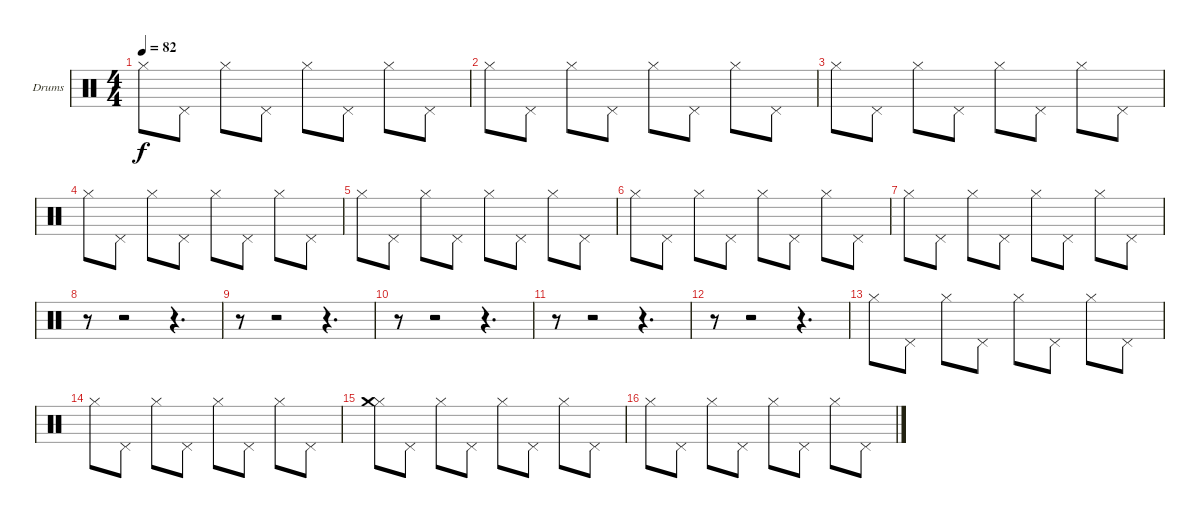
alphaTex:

\bracketExtendMode groupsimilarinstruments
\firstSystemTrackNameOrientation horizontal
\otherSystemsTrackNameOrientation horizontal
\track ("Drumkit" "Drums") {instrument percussion}
\staff {score}
\articulation defaults
\ts (4 4)
\tempo 82
\clef neutral
\ks c "Hi-Hat (closed)".8{dy f} "Pedal Hi-Hat (hit)".8 "Hi-Hat (closed)".8 "Pedal Hi-Hat (hit)".8 "Hi-Hat (closed)".8 "Pedal Hi-Hat (hit)".8 "Hi-Hat (closed)".8 "Pedal Hi-Hat (hit)".8
|
"Hi-Hat (closed)".8 "Pedal Hi-Hat (hit)".8 "Hi-Hat (closed)".8 "Pedal Hi-Hat (hit)".8 "Hi-Hat (closed)".8 "Pedal Hi-Hat (hit)".8 "Hi-Hat (closed)".8 "Pedal Hi-Hat (hit)".8 |
"Hi-Hat (closed)".8 "Pedal Hi-Hat (hit)".8 "Hi-Hat (closed)".8 "Pedal Hi-Hat (hit)".8 "Hi-Hat (closed)".8 "Pedal Hi-Hat (hit)".8 "Hi-Hat (closed)".8 "Pedal Hi-Hat (hit)".8 |
"Hi-Hat (closed)".8 "Pedal Hi-Hat (hit)".8 "Hi-Hat (closed)".8 "Pedal Hi-Hat (hit)".8 "Hi-Hat (closed)".8 "Pedal Hi-Hat (hit)".8 "Hi-Hat (closed)".8 "Pedal Hi-Hat (hit)".8 |
"Hi-Hat (closed)".8 "Pedal Hi-Hat (hit)".8 "Hi-Hat (closed)".8 "Pedal Hi-Hat (hit)".8 "Hi-Hat (closed)".8 "Pedal Hi-Hat (hit)".8 "Hi-Hat (closed)".8 "Pedal Hi-Hat (hit)".8 |
"Hi-Hat (closed)".8 "Pedal Hi-Hat (hit)".8 "Hi-Hat (closed)".8 "Pedal Hi-Hat (hit)".8 "Hi-Hat (closed)".8 "Pedal Hi-Hat (hit)".8 "Hi-Hat (closed)".8 "Pedal Hi-Hat (hit)".8 |
"Hi-Hat (closed)".8 "Pedal Hi-Hat (hit)".8 "Hi-Hat (closed)".8 "Pedal Hi-Hat (hit)".8 "Hi-Hat (closed)".8 "Pedal Hi-Hat (hit)".8 "Hi-Hat (closed)".8 "Pedal Hi-Hat (hit)".8 |
r.8 r.2 r.4{d} |
r.8 r.2 r.4{d} |
r.8 r.2 r.4{d} |
r.8 r.2 r.4{d} |
r.8 r.2 r.4{d} |
"Hi-Hat (closed)".8 "Pedal Hi-Hat (hit)".8 "Hi-Hat (closed)".8 "Pedal Hi-Hat (hit)".8 "Hi-Hat (closed)".8 "Pedal Hi-Hat (hit)".8 "Hi-Hat (closed)".8 "Pedal Hi-Hat (hit)".8 |
"Hi-Hat (closed)".8 "Pedal Hi-Hat (hit)".8 "Hi-Hat (closed)".8 "Pedal Hi-Hat (hit)".8 "Hi-Hat (closed)".8 "Pedal Hi-Hat (hit)".8 "Hi-Hat (closed)".8 "Pedal Hi-Hat (hit)".8 |
("Hi-Hat (closed)" "Crash medium (hit)").8 "Pedal Hi-Hat (hit)".8 "Hi-Hat (closed)".8 "Pedal Hi-Hat (hit)".8 "Hi-Hat (closed)".8 "Pedal Hi-Hat (hit)".8 "Hi-Hat (closed)".8 "Pedal Hi-Hat (hit)".8 |
"Hi-Hat (closed)".8 "Pedal Hi-Hat (hit)".8 "Hi-Hat (closed)".8 "Pedal Hi-Hat (hit)".8 "Hi-Hat (closed)".8 "Pedal Hi-Hat (hit)".8 "Hi-Hat (closed)".8 "Pedal Hi-Hat (hit)".8
